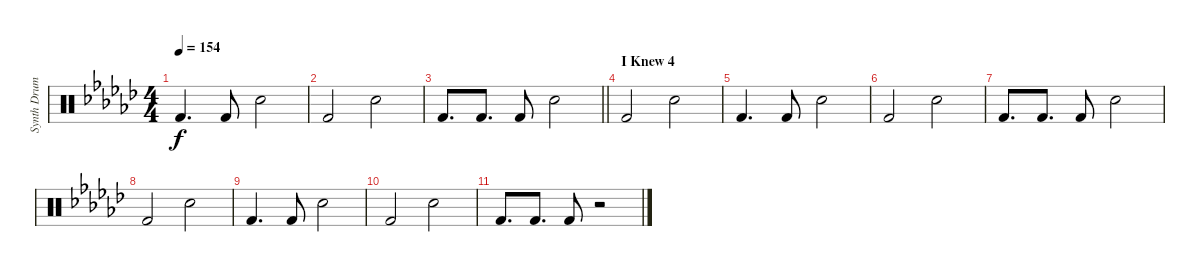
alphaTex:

\track ("Synth Drums" "Synth Drum") {instrument percussion}
\staff {score}
\articulation defaults
\ts (4 4)
\tempo 154
\clef neutral
\ks gb "Kick (hit) 2".4{d dy f} "Kick (hit) 2".8 "Electric Snare (hit)".2
|
"Kick (hit) 2".2 "Electric Snare (hit)".2 |
\barLineRight lightlight "Kick (hit) 2".8{d} "Kick (hit) 2".8{d} "Kick (hit) 2".8 "Electric Snare (hit)".2
|
\section ("" "I Knew 4")
"Kick (hit) 2".2 "Electric Snare (hit)".2 |
"Kick (hit) 2".4{d} "Kick (hit) 2".8 "Electric Snare (hit)".2 |
"Kick (hit) 2".2 "Electric Snare (hit)".2 |
"Kick (hit) 2".8{d} "Kick (hit) 2".8{d} "Kick (hit) 2".8 "Electric Snare (hit)".2 |
"Kick (hit) 2".2 "Electric Snare (hit)".2 |
"Kick (hit) 2".4{d} "Kick (hit) 2".8 "Electric Snare (hit)".2 |
"Kick (hit) 2".2 "Electric Snare (hit)".2 |
"Kick (hit) 2".8{d} "Kick (hit) 2".8{d} "Kick (hit) 2".8 r.2
